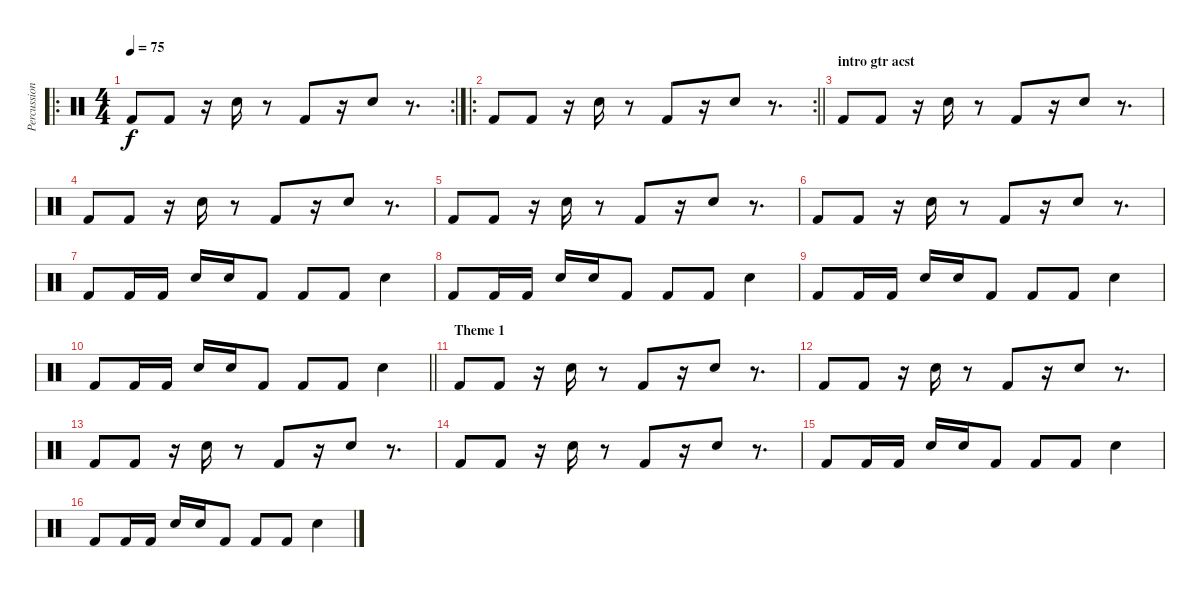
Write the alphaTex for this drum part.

\track ("Percussions" "Percussion") {instrument percussion}
\staff {score}
\articulation defaults
\ro
\rc 2
\ts (4 4)
\tempo 75
\clef neutral
\ks c "Kick (hit) 2".8{dy f} "Kick (hit) 2".8
r.16 "Electric Snare (hit)".16 r.8 "Kick (hit) 2".8 r.16 "Electric Snare (hit)".8 r.8{d} |
\ro
\rc 2
\barLineRight lightlight "Kick (hit) 2".8 "Kick (hit) 2".8
r.16 "Electric Snare (hit)".16 r.8 "Kick (hit) 2".8 r.16 "Electric Snare (hit)".8 r.8{d} |
\section ("" "intro gtr acst")
"Kick (hit) 2".8 "Kick (hit) 2".8 r.16 "Electric Snare (hit)".16 r.8 "Kick (hit) 2".8 r.16 "Electric Snare (hit)".8 r.8{d} |
"Kick (hit) 2".8 "Kick (hit) 2".8 r.16 "Electric Snare (hit)".16 r.8 "Kick (hit) 2".8 r.16 "Electric Snare (hit)".8 r.8{d} |
"Kick (hit) 2".8 "Kick (hit) 2".8 r.16 "Electric Snare (hit)".16 r.8 "Kick (hit) 2".8 r.16 "Electric Snare (hit)".8 r.8{d} |
"Kick (hit) 2".8 "Kick (hit) 2".8 r.16 "Electric Snare (hit)".16 r.8 "Kick (hit) 2".8 r.16 "Electric Snare (hit)".8 r.8{d} |
"Kick (hit) 2".8 "Kick (hit) 2".16 "Kick (hit) 2".16 "Electric Snare (hit)".16 "Electric Snare (hit)".16 "Kick (hit) 2".8 "Kick (hit) 2".8 "Kick (hit) 2".8 "Electric Snare (hit)".4 |
"Kick (hit) 2".8 "Kick (hit) 2".16 "Kick (hit) 2".16 "Electric Snare (hit)".16 "Electric Snare (hit)".16 "Kick (hit) 2".8 "Kick (hit) 2".8 "Kick (hit) 2".8 "Electric Snare (hit)".4 |
"Kick (hit) 2".8 "Kick (hit) 2".16 "Kick (hit) 2".16 "Electric Snare (hit)".16 "Electric Snare (hit)".16 "Kick (hit) 2".8 "Kick (hit) 2".8 "Kick (hit) 2".8 "Electric Snare (hit)".4 |
\barLineRight lightlight "Kick (hit) 2".8 "Kick (hit) 2".16 "Kick (hit) 2".16 "Electric Snare (hit)".16 "Electric Snare (hit)".16 "Kick (hit) 2".8 "Kick (hit) 2".8 "Kick (hit) 2".8 "Electric Snare (hit)".4
|
\section ("" "Theme 1")
"Kick (hit) 2".8 "Kick (hit) 2".8 r.16 "Electric Snare (hit)".16 r.8 "Kick (hit) 2".8 r.16 "Electric Snare (hit)".8 r.8{d} |
"Kick (hit) 2".8 "Kick (hit) 2".8 r.16 "Electric Snare (hit)".16 r.8 "Kick (hit) 2".8 r.16 "Electric Snare (hit)".8 r.8{d} |
"Kick (hit) 2".8 "Kick (hit) 2".8 r.16 "Electric Snare (hit)".16 r.8 "Kick (hit) 2".8 r.16 "Electric Snare (hit)".8 r.8{d} |
"Kick (hit) 2".8 "Kick (hit) 2".8 r.16 "Electric Snare (hit)".16 r.8 "Kick (hit) 2".8 r.16 "Electric Snare (hit)".8 r.8{d} |
"Kick (hit) 2".8 "Kick (hit) 2".16 "Kick (hit) 2".16 "Electric Snare (hit)".16 "Electric Snare (hit)".16 "Kick (hit) 2".8 "Kick (hit) 2".8 "Kick (hit) 2".8 "Electric Snare (hit)".4 |
"Kick (hit) 2".8 "Kick (hit) 2".16 "Kick (hit) 2".16 "Electric Snare (hit)".16 "Electric Snare (hit)".16 "Kick (hit) 2".8 "Kick (hit) 2".8 "Kick (hit) 2".8 "Electric Snare (hit)".4
